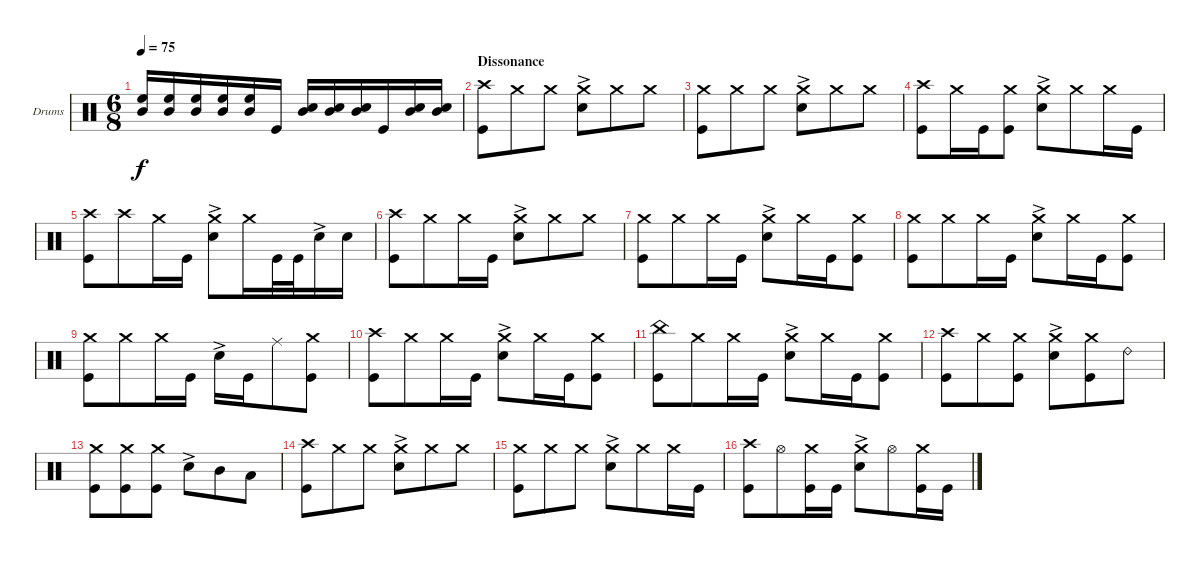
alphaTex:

\bracketExtendMode groupsimilarinstruments
\firstSystemTrackNameOrientation horizontal
\otherSystemsTrackNameOrientation horizontal
\track ("Drumkit" "Drums") {instrument percussion}
\staff {score}
\articulation defaults
\ts (6 8)
\tempo 75
\clef neutral
\ks c
("Mid Tom (hit)" "High Floor Tom (hit)").16{dy f} ("Mid Tom (hit)" "High Floor Tom (hit)").16 ("Mid Tom (hit)" "High Floor Tom (hit)").16 ("Mid Tom (hit)" "High Floor Tom (hit)").16 ("Mid Tom (hit)" "High Floor Tom (hit)").16 "Kick (hit)".16 ("Snare (hit) 2" "Mid Tom (hit)").16 ("Snare (hit) 2" "Mid Tom (hit)").16 ("Snare (hit) 2" "Mid Tom (hit)").16 "Kick (hit)".16 ("Snare (hit) 2" "Mid Tom (hit)").16 ("Snare (hit) 2" "Mid Tom (hit)").16 |
\section ("" "Dissonance")
("Crash high (hit)" "Kick (hit)").8 "Crash medium (hit)".8 "Crash medium (hit)".8 ("Crash medium (hit)" "Snare (hit) 2"{ac}).8 "Crash medium (hit)".8 "Crash medium (hit)".8 |
("Crash medium (hit)" "Kick (hit)").8 "Crash medium (hit)".8 "Crash medium (hit)".8 ("Crash medium (hit)" "Snare (hit) 2"{ac}).8 "Crash medium (hit)".8 "Crash medium (hit)".8 |
("Kick (hit)" "Crash high (hit)").8 "Crash medium (hit)".16 "Kick (hit)".16 ("Kick (hit)" "Crash medium (hit)").8 ("Snare (hit) 2"{ac} "Crash medium (hit)").8 "Crash medium (hit)".8 "Crash medium (hit)".16 "Kick (hit)".16 |
("Kick (hit)" "Crash high (hit)").8 "Crash high (hit)".8 "Crash medium (hit)".16 "Kick (hit)".16 ("Crash medium (hit)" "Snare (hit) 2"{ac}).8 "Crash medium (hit)".16 "Kick (hit)".32 "Kick (hit)".32 "Snare (hit) 2"{ac}.16 "Snare (hit) 2".16 |
("Kick (hit)" "Crash high (hit)").8 "Crash medium (hit)".8 "Crash medium (hit)".16 "Kick (hit)".16 ("Crash medium (hit)" "Snare (hit) 2"{ac}).8 "Crash medium (hit)".8 "Crash medium (hit)".8 |
("Crash medium (hit)" "Kick (hit)").8 "Crash medium (hit)".8 "Crash medium (hit)".16 "Kick (hit)".16 ("Crash medium (hit)" "Snare (hit) 2"{ac}).8 "Crash medium (hit)".16 "Kick (hit)".16 ("Kick (hit)" "Crash medium (hit)").8 |
("Crash medium (hit)" "Kick (hit)").8 "Crash medium (hit)".8 "Crash medium (hit)".16 "Kick (hit)".16 ("Crash medium (hit)" "Snare (hit) 2"{ac}).8 "Crash medium (hit)".16 "Kick (hit)".16 ("Kick (hit)" "Crash medium (hit)").8 |
("Crash medium (hit)" "Kick (hit)").8 "Crash medium (hit)".8 "Crash medium (hit)".16 "Kick (hit)".16 "Snare (hit) 2"{ac}.16 "Kick (hit)".16 "Ride (middle)".8 ("Kick (hit)" "Crash medium (hit)").8 |
("Kick (hit)" "Crash high (hit)").8 "Crash medium (hit)".8 "Crash medium (hit)".16 "Kick (hit)".16 ("Crash medium (hit)" "Snare (hit) 2"{ac}).8 "Crash medium (hit)".16 "Kick (hit)".16 ("Kick (hit)" "Crash medium (hit)").8 |
("Kick (hit)" "China (hit)").8 "Crash medium (hit)".8 "Crash medium (hit)".16 "Kick (hit)".16 ("Crash medium (hit)" "Snare (hit) 2"{ac}).8 "Crash medium (hit)".16 "Kick (hit)".16 ("Kick (hit)" "Crash medium (hit)").8 |
("Crash high (hit)" "Kick (hit)").8 "Crash medium (hit)".8 ("Crash medium (hit)" "Kick (hit)").8 ("Crash medium (hit)" "Snare (hit) 2"{ac}).8 ("Crash medium (hit)" "Kick (hit)").8 "Ride (bell) 2".8 |
("Kick (hit)" "Crash medium (hit)").8 ("Kick (hit)" "Crash medium (hit)").8 ("Kick (hit)" "Crash medium (hit)").8 "Snare (hit) 2"{ac}.8 "Mid Tom (hit)".8 "Low Tom (hit)".8 |
("Crash high (hit)" "Kick (hit)").8 "Crash medium (hit)".8 "Crash medium (hit)".8 ("Crash medium (hit)" "Snare (hit) 2"{ac}).8 "Crash medium (hit)".8 "Crash medium (hit)".8 |
("Crash medium (hit)" "Kick (hit)").8 "Crash medium (hit)".8 "Crash medium (hit)".8 ("Crash medium (hit)" "Snare (hit) 2"{ac}).8 "Crash medium (hit)".8 "Crash medium (hit)".16 "Kick (hit)".16 |
("Kick (hit)" "Crash high (hit)").8 "Hi-Hat (open)".8 ("Crash medium (hit)" "Kick (hit)").16 "Kick (hit)".16 ("Crash medium (hit)" "Snare (hit) 2"{ac}).8 "Hi-Hat (open)".8 ("Crash medium (hit)" "Kick (hit)").16 "Kick (hit)".16
